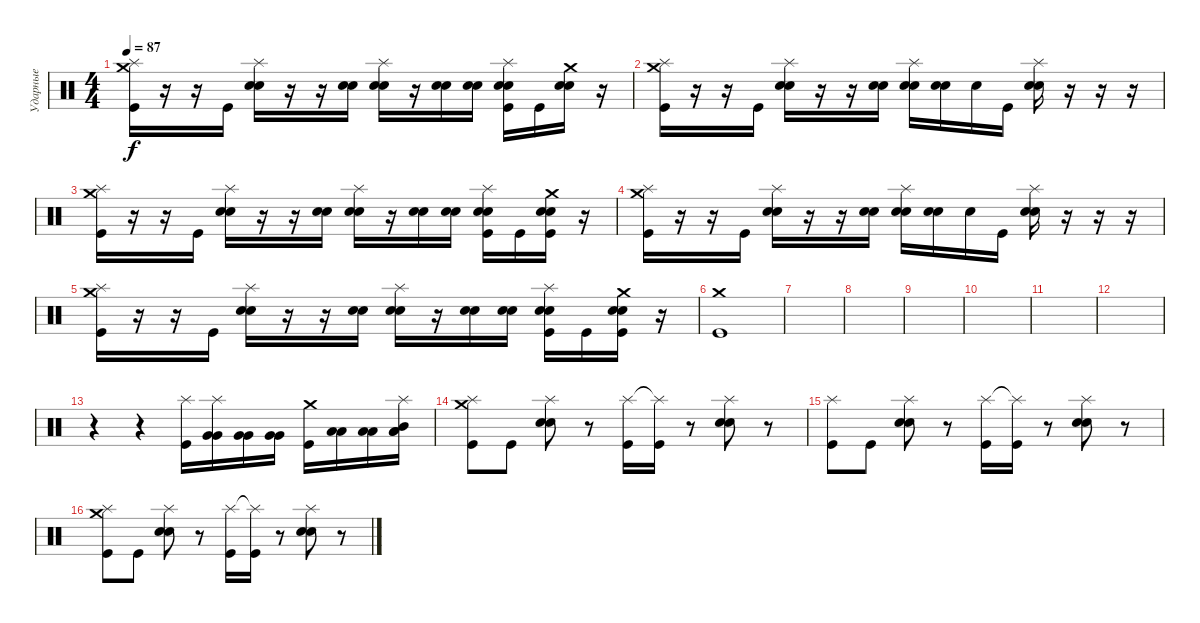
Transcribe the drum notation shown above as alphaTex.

\track ("Ударные" "Ударные") {instrument percussion}
\staff {score}
\articulation defaults
\ts (4 4)
\tempo 87
\clef neutral
\ks c
("Splash (hit)" "Crash medium (hit)" "Kick (hit)").16{dy f} r.16 r.16 "Kick (hit)".16 ("Splash (hit)" "Electric Snare (hit)" "Electric Snare (hit)").16 r.16 r.16 ("Electric Snare (hit)" "Electric Snare (hit)").16 ("Splash (hit)" "Electric Snare (hit)" "Electric Snare (hit)").16 r.16 ("Electric Snare (hit)" "Electric Snare (hit)").16 ("Electric Snare (hit)" "Electric Snare (hit)").16 ("Splash (hit)" "Electric Snare (hit)" "Electric Snare (hit)" "Kick (hit)").16 "Kick (hit)".16 ("Crash medium (hit)" "Electric Snare (hit)" "Electric Snare (hit)").16 r.16 |
("Splash (hit)" "Crash medium (hit)" "Kick (hit)").16 r.16 r.16 "Kick (hit)".16 ("Splash (hit)" "Electric Snare (hit)" "Electric Snare (hit)").16 r.16 r.16 ("Electric Snare (hit)" "Electric Snare (hit)").16 ("Splash (hit)" "Electric Snare (hit)" "Electric Snare (hit)").16 ("Electric Snare (hit)" "Electric Snare (hit)").16 "Electric Snare (hit)".16 "Kick (hit)".16 ("Splash (hit)" "Electric Snare (hit)" "Electric Snare (hit)").16 r.16 r.16 r.16 |
("Splash (hit)" "Crash medium (hit)" "Kick (hit)").16 r.16 r.16 "Kick (hit)".16 ("Splash (hit)" "Electric Snare (hit)" "Electric Snare (hit)").16 r.16 r.16 ("Electric Snare (hit)" "Electric Snare (hit)").16 ("Splash (hit)" "Electric Snare (hit)" "Electric Snare (hit)").16 r.16 ("Electric Snare (hit)" "Electric Snare (hit)").16 ("Electric Snare (hit)" "Electric Snare (hit)").16 ("Splash (hit)" "Electric Snare (hit)" "Electric Snare (hit)" "Kick (hit)").16 "Kick (hit)".16 ("Crash medium (hit)" "Electric Snare (hit)" "Electric Snare (hit)" "Kick (hit)").16 r.16 |
("Splash (hit)" "Crash medium (hit)" "Kick (hit)").16 r.16 r.16 "Kick (hit)".16 ("Splash (hit)" "Electric Snare (hit)" "Electric Snare (hit)").16 r.16 r.16 ("Electric Snare (hit)" "Electric Snare (hit)").16 ("Splash (hit)" "Electric Snare (hit)" "Electric Snare (hit)").16 ("Electric Snare (hit)" "Electric Snare (hit)").16 "Electric Snare (hit)".16 "Kick (hit)".16 ("Splash (hit)" "Electric Snare (hit)" "Electric Snare (hit)").16 r.16 r.16 r.16 |
("Splash (hit)" "Crash medium (hit)" "Kick (hit)").16 r.16 r.16 "Kick (hit)".16 ("Splash (hit)" "Electric Snare (hit)" "Electric Snare (hit)").16 r.16 r.16 ("Electric Snare (hit)" "Electric Snare (hit)").16 ("Splash (hit)" "Electric Snare (hit)" "Electric Snare (hit)").16 r.16 ("Electric Snare (hit)" "Electric Snare (hit)").16 ("Electric Snare (hit)" "Electric Snare (hit)").16 ("Splash (hit)" "Electric Snare (hit)" "Electric Snare (hit)" "Kick (hit)").16 "Kick (hit)".16 ("Crash medium (hit)" "Electric Snare (hit)" "Electric Snare (hit)" "Kick (hit)").16 r.16 |
("Crash medium (hit)" "Kick (hit)").1 |
|
|
|
|
|
|
r.4 r.4 ("Splash (hit)" "Kick (hit)").16 ("Splash (hit)" "Very Low Tom (hit)" "Very Low Tom (hit)").16 ("Very Low Tom (hit)" "Very Low Tom (hit)").16 ("Very Low Tom (hit)" "Very Low Tom (hit)").16 ("Crash medium (hit)" "Kick (hit)").16 ("Low Floor Tom (hit)" "Low Floor Tom (hit)").16 ("Low Floor Tom (hit)" "Low Floor Tom (hit)").16 ("Splash (hit)" "Mid Tom (hit)" "Low Floor Tom (hit)" "Low Floor Tom (hit)").16 |
("Splash (hit)" "Crash medium (hit)" "Kick (hit)").8 "Kick (hit)".8 ("Splash (hit)" "Electric Snare (hit)" "Electric Snare (hit)").8 r.8 ("Splash (hit)" "Kick (hit)").16 ("Splash (hit)"{t} "Kick (hit)").16 r.8 ("Splash (hit)" "Electric Snare (hit)" "Electric Snare (hit)").8 r.8 |
("Splash (hit)" "Kick (hit)").8 "Kick (hit)".8 ("Splash (hit)" "Electric Snare (hit)" "Electric Snare (hit)").8 r.8 ("Splash (hit)" "Kick (hit)").16 ("Splash (hit)"{t} "Kick (hit)").16 r.8 ("Splash (hit)" "Electric Snare (hit)" "Electric Snare (hit)").8 r.8 |
("Splash (hit)" "Crash medium (hit)" "Kick (hit)").8 "Kick (hit)".8 ("Splash (hit)" "Electric Snare (hit)" "Electric Snare (hit)").8 r.8 ("Splash (hit)" "Kick (hit)").16 ("Splash (hit)"{t} "Kick (hit)").16 r.8 ("Splash (hit)" "Electric Snare (hit)" "Electric Snare (hit)").8 r.8
